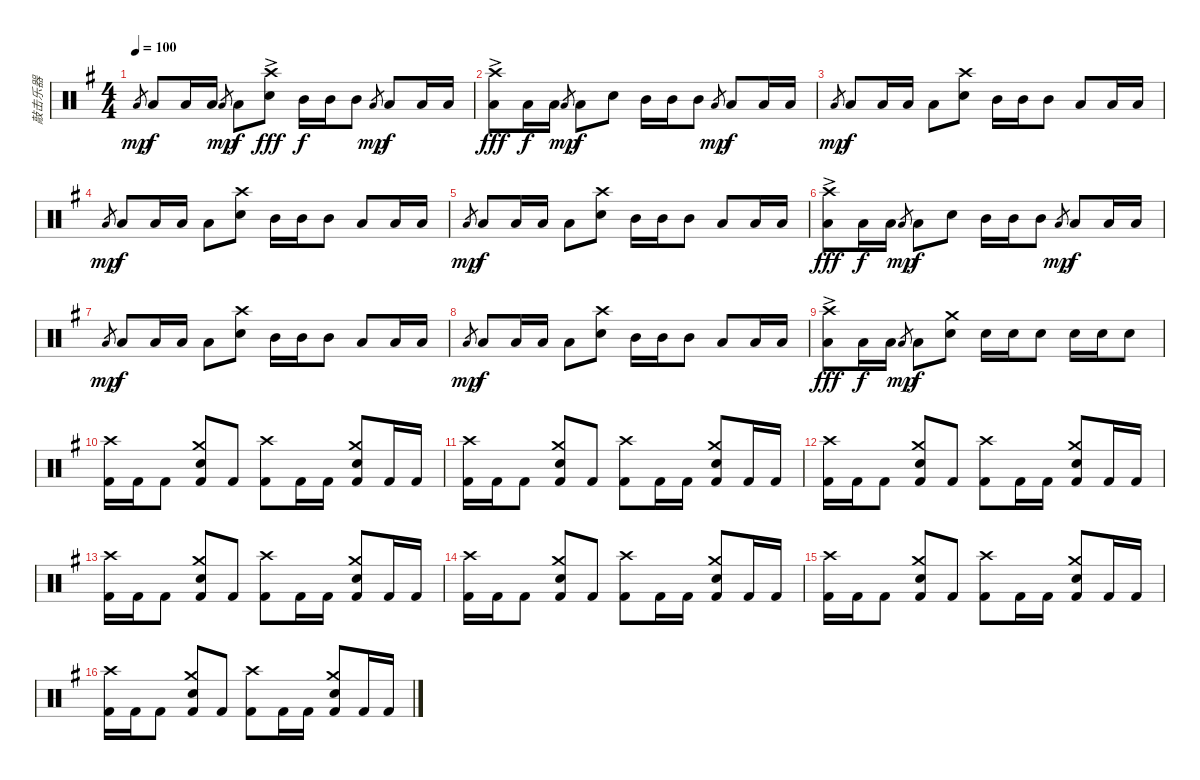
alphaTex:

\track ("敲击乐器" "敲击乐器") {instrument percussion}
\staff {score}
\articulation defaults
\ts (4 4)
\tempo 100
\clef neutral
\ks eminor "Low Tom (hit)"{sl}.8{gr dy mp} "Low Floor Tom (hit)".8{dy f} "Low Floor Tom (hit)".16 "Low Floor Tom (hit)".16 "Low Tom (hit)"{sl}.8{gr dy mp} "Low Floor Tom (hit)".8{dy f}
("Crash high (hit)"{ac} "Snare (hit) 2"{ac}).8{dy fff} "Mid Tom (hit)".16{dy f} "Mid Tom (hit)".16 "Mid Tom (hit)".8 "Low Tom (hit)"{sl}.8{gr dy mp} "Low Tom (hit)".8{dy f} "Low Tom (hit)".16 "Low Tom (hit)".16 |
("Crash high (hit)"{ac} "Low Floor Tom (hit)"{ac}).8{dy fff volume 7} "Low Floor Tom (hit)".16{dy f} "Low Floor Tom (hit)".16 "Low Tom (hit)"{sl}.8{gr dy mp} "Low Floor Tom (hit)".8{dy f} "Snare (hit) 2".8 "Mid Tom (hit)".16 "Mid Tom (hit)".16 "Mid Tom (hit)".8 "Low Tom (hit)"{sl}.8{gr dy mp} "Low Tom (hit)".8{dy f} "Low Tom (hit)".16 "Low Tom (hit)".16 |
"Low Tom (hit)"{sl}.8{gr dy mp} "Low Floor Tom (hit)".8{dy f} "Low Floor Tom (hit)".16 "Low Floor Tom (hit)".16 "Low Floor Tom (hit)".8 ("Crash high (hit)" "Snare (hit) 2").8 "Mid Tom (hit)".16 "Mid Tom (hit)".16 "Mid Tom (hit)".8 "Low Tom (hit)".8 "Low Tom (hit)".16 "Low Tom (hit)".16 |
"Low Tom (hit)"{sl}.8{gr dy mp} "Low Floor Tom (hit)".8{dy f} "Low Floor Tom (hit)".16 "Low Floor Tom (hit)".16 "Low Floor Tom (hit)".8 ("Crash high (hit)" "Snare (hit) 2").8 "Mid Tom (hit)".16 "Mid Tom (hit)".16 "Mid Tom (hit)".8 "Low Tom (hit)".8 "Low Tom (hit)".16 "Low Tom (hit)".16 |
"Low Tom (hit)"{sl}.8{gr dy mp} "Low Floor Tom (hit)".8{dy f} "Low Floor Tom (hit)".16 "Low Floor Tom (hit)".16 "Low Floor Tom (hit)".8 ("Crash high (hit)" "Snare (hit) 2").8 "Mid Tom (hit)".16 "Mid Tom (hit)".16 "Mid Tom (hit)".8 "Low Tom (hit)".8 "Low Tom (hit)".16 "Low Tom (hit)".16 |
("Crash high (hit)"{ac} "Low Floor Tom (hit)"{ac}).8{dy fff} "Low Floor Tom (hit)".16{dy f} "Low Floor Tom (hit)".16 "Low Tom (hit)"{sl}.8{gr dy mp} "Low Floor Tom (hit)".8{dy f} "Snare (hit) 2".8 "Mid Tom (hit)".16 "Mid Tom (hit)".16 "Mid Tom (hit)".8 "Low Tom (hit)"{sl}.8{gr dy mp} "Low Tom (hit)".8{dy f} "Low Tom (hit)".16 "Low Tom (hit)".16 |
"Low Tom (hit)"{sl}.8{gr dy mp} "Low Floor Tom (hit)".8{dy f} "Low Floor Tom (hit)".16 "Low Floor Tom (hit)".16 "Low Floor Tom (hit)".8 ("Crash high (hit)" "Snare (hit) 2").8 "Mid Tom (hit)".16 "Mid Tom (hit)".16 "Mid Tom (hit)".8 "Low Tom (hit)".8 "Low Tom (hit)".16 "Low Tom (hit)".16 |
"Low Tom (hit)"{sl}.8{gr dy mp} "Low Floor Tom (hit)".8{dy f} "Low Floor Tom (hit)".16 "Low Floor Tom (hit)".16 "Low Floor Tom (hit)".8 ("Crash high (hit)" "Snare (hit) 2").8 "Mid Tom (hit)".16 "Mid Tom (hit)".16 "Mid Tom (hit)".8 "Low Tom (hit)".8 "Low Tom (hit)".16 "Low Tom (hit)".16 |
("Crash high (hit)"{ac} "Low Floor Tom (hit)"{ac}).8{dy fff} "Low Floor Tom (hit)".16{dy f} "Low Floor Tom (hit)".16 "Low Tom (hit)"{sl}.8{gr dy mp} "Low Floor Tom (hit)".8{dy f} ("Crash medium (hit)" "Snare (hit) 2").8 "Snare (hit) 2".16 "Snare (hit) 2".16 "Snare (hit) 2".8 "Snare (hit) 2".16 "Snare (hit) 2".16 "Snare (hit) 2".8 |
("Crash high (hit)" "Kick (hit) 2").16{volume 9} "Kick (hit) 2".16 "Kick (hit) 2".8 ("Crash medium (hit)" "Snare (hit) 2" "Kick (hit) 2").8 "Kick (hit) 2".8 ("Crash high (hit)" "Kick (hit) 2").8 "Kick (hit) 2".16 "Kick (hit) 2".16 ("Crash medium (hit)" "Snare (hit) 2" "Kick (hit) 2").8 "Kick (hit) 2".16 "Kick (hit) 2".16 |
("Crash high (hit)" "Kick (hit) 2").16 "Kick (hit) 2".16 "Kick (hit) 2".8 ("Crash medium (hit)" "Snare (hit) 2" "Kick (hit) 2").8 "Kick (hit) 2".8 ("Crash high (hit)" "Kick (hit) 2").8 "Kick (hit) 2".16 "Kick (hit) 2".16 ("Crash medium (hit)" "Snare (hit) 2" "Kick (hit) 2").8 "Kick (hit) 2".16 "Kick (hit) 2".16 |
("Crash high (hit)" "Kick (hit) 2").16 "Kick (hit) 2".16 "Kick (hit) 2".8 ("Crash medium (hit)" "Snare (hit) 2" "Kick (hit) 2").8 "Kick (hit) 2".8 ("Crash high (hit)" "Kick (hit) 2").8 "Kick (hit) 2".16 "Kick (hit) 2".16 ("Crash medium (hit)" "Snare (hit) 2" "Kick (hit) 2").8 "Kick (hit) 2".16 "Kick (hit) 2".16 |
("Crash high (hit)" "Kick (hit) 2").16 "Kick (hit) 2".16 "Kick (hit) 2".8 ("Crash medium (hit)" "Snare (hit) 2" "Kick (hit) 2").8 "Kick (hit) 2".8 ("Crash high (hit)" "Kick (hit) 2").8 "Kick (hit) 2".16 "Kick (hit) 2".16 ("Crash medium (hit)" "Snare (hit) 2" "Kick (hit) 2").8 "Kick (hit) 2".16 "Kick (hit) 2".16 |
("Crash high (hit)" "Kick (hit) 2").16 "Kick (hit) 2".16 "Kick (hit) 2".8 ("Crash medium (hit)" "Snare (hit) 2" "Kick (hit) 2").8 "Kick (hit) 2".8 ("Crash high (hit)" "Kick (hit) 2").8 "Kick (hit) 2".16 "Kick (hit) 2".16 ("Crash medium (hit)" "Snare (hit) 2" "Kick (hit) 2").8 "Kick (hit) 2".16 "Kick (hit) 2".16 |
("Crash high (hit)" "Kick (hit) 2").16 "Kick (hit) 2".16 "Kick (hit) 2".8 ("Crash medium (hit)" "Snare (hit) 2" "Kick (hit) 2").8 "Kick (hit) 2".8 ("Crash high (hit)" "Kick (hit) 2").8 "Kick (hit) 2".16 "Kick (hit) 2".16 ("Crash medium (hit)" "Snare (hit) 2" "Kick (hit) 2").8 "Kick (hit) 2".16 "Kick (hit) 2".16 |
("Crash high (hit)" "Kick (hit) 2").16 "Kick (hit) 2".16 "Kick (hit) 2".8 ("Crash medium (hit)" "Snare (hit) 2" "Kick (hit) 2").8 "Kick (hit) 2".8 ("Crash high (hit)" "Kick (hit) 2").8 "Kick (hit) 2".16 "Kick (hit) 2".16 ("Crash medium (hit)" "Snare (hit) 2" "Kick (hit) 2").8 "Kick (hit) 2".16 "Kick (hit) 2".16
